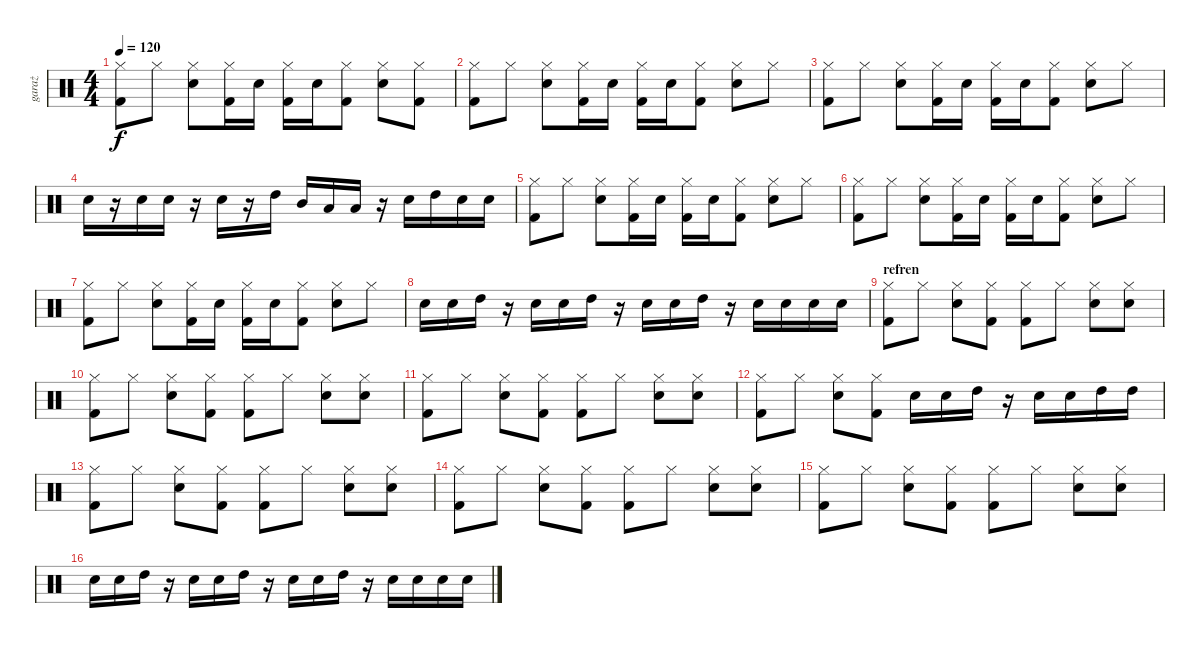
\track ("garaż" "garaż") {instrument percussion}
\staff {score}
\articulation defaults
\ts (4 4)
\tempo 120
\clef neutral
\ks c
("Hi-Hat (closed)" "Kick (hit) 2").8{dy f} "Hi-Hat (closed)".8 ("Hi-Hat (closed)" "Snare (hit) 2").8 ("Hi-Hat (closed)" "Kick (hit) 2").16 "Snare (hit) 2".16 ("Hi-Hat (closed)" "Kick (hit) 2").16 "Snare (hit) 2".16 ("Hi-Hat (closed)" "Kick (hit) 2").8 ("Hi-Hat (closed)" "Snare (hit) 2").8 ("Hi-Hat (closed)" "Kick (hit) 2").8 |
("Hi-Hat (closed)" "Kick (hit) 2").8 "Hi-Hat (closed)".8 ("Hi-Hat (closed)" "Snare (hit) 2").8 ("Hi-Hat (closed)" "Kick (hit) 2").16 "Snare (hit) 2".16 ("Hi-Hat (closed)" "Kick (hit) 2").16 "Snare (hit) 2".16 ("Hi-Hat (closed)" "Kick (hit) 2").8 ("Hi-Hat (closed)" "Snare (hit) 2").8 "Hi-Hat (closed)".8 |
("Hi-Hat (closed)" "Kick (hit) 2").8 "Hi-Hat (closed)".8 ("Hi-Hat (closed)" "Snare (hit) 2").8 ("Hi-Hat (closed)" "Kick (hit) 2").16 "Snare (hit) 2".16 ("Hi-Hat (closed)" "Kick (hit) 2").16 "Snare (hit) 2".16 ("Hi-Hat (closed)" "Kick (hit) 2").8 ("Hi-Hat (closed)" "Snare (hit) 2").8 "Hi-Hat (closed)".8 |
"Snare (hit) 2".16 r.16 "Snare (hit) 2".16 "Snare (hit) 2".16 r.16 "Snare (hit) 2".16 r.16 "High Tom (hit)".16 "Mid Tom (hit)".16 "Low Tom (hit)".16 "Low Floor Tom (hit)".16 r.16 "Snare (hit) 2".16 "High Tom (hit)".16 "Snare (hit) 2".16 "Snare (hit) 2".16 |
("Hi-Hat (closed)" "Kick (hit) 2").8 "Hi-Hat (closed)".8 ("Hi-Hat (closed)" "Snare (hit) 2").8 ("Hi-Hat (closed)" "Kick (hit) 2").16 "Snare (hit) 2".16 ("Hi-Hat (closed)" "Kick (hit) 2").16 "Snare (hit) 2".16 ("Hi-Hat (closed)" "Kick (hit) 2").8 ("Hi-Hat (closed)" "Snare (hit) 2").8 "Hi-Hat (closed)".8 |
("Hi-Hat (closed)" "Kick (hit) 2").8 "Hi-Hat (closed)".8 ("Hi-Hat (closed)" "Snare (hit) 2").8 ("Hi-Hat (closed)" "Kick (hit) 2").16 "Snare (hit) 2".16 ("Hi-Hat (closed)" "Kick (hit) 2").16 "Snare (hit) 2".16 ("Hi-Hat (closed)" "Kick (hit) 2").8 ("Hi-Hat (closed)" "Snare (hit) 2").8 "Hi-Hat (closed)".8 |
("Hi-Hat (closed)" "Kick (hit) 2").8 "Hi-Hat (closed)".8 ("Hi-Hat (closed)" "Snare (hit) 2").8 ("Hi-Hat (closed)" "Kick (hit) 2").16 "Snare (hit) 2".16 ("Hi-Hat (closed)" "Kick (hit) 2").16 "Snare (hit) 2".16 ("Hi-Hat (closed)" "Kick (hit) 2").8 ("Hi-Hat (closed)" "Snare (hit) 2").8 "Hi-Hat (closed)".8 |
"Snare (hit) 2".16 "Snare (hit) 2".16 "High Tom (hit)".16 r.16 "Snare (hit) 2".16 "Snare (hit) 2".16 "High Tom (hit)".16 r.16 "Snare (hit) 2".16 "Snare (hit) 2".16 "High Tom (hit)".16 r.16 "Snare (hit) 2".16 "Snare (hit) 2".16 "Snare (hit) 2".16 "Snare (hit) 2".16 |
\section ("" "refren")
("Hi-Hat (closed)" "Kick (hit) 2").8 "Hi-Hat (closed)".8 ("Hi-Hat (closed)" "Snare (hit) 2").8 ("Hi-Hat (closed)" "Kick (hit) 2").8 ("Hi-Hat (closed)" "Kick (hit) 2").8 "Hi-Hat (closed)".8 ("Hi-Hat (closed)" "Snare (hit) 2").8 ("Hi-Hat (closed)" "Snare (hit) 2").8 |
("Hi-Hat (closed)" "Kick (hit) 2").8 "Hi-Hat (closed)".8 ("Hi-Hat (closed)" "Snare (hit) 2").8 ("Hi-Hat (closed)" "Kick (hit) 2").8 ("Hi-Hat (closed)" "Kick (hit) 2").8 "Hi-Hat (closed)".8 ("Hi-Hat (closed)" "Snare (hit) 2").8 ("Hi-Hat (closed)" "Snare (hit) 2").8 |
("Hi-Hat (closed)" "Kick (hit) 2").8 "Hi-Hat (closed)".8 ("Hi-Hat (closed)" "Snare (hit) 2").8 ("Hi-Hat (closed)" "Kick (hit) 2").8 ("Hi-Hat (closed)" "Kick (hit) 2").8 "Hi-Hat (closed)".8 ("Hi-Hat (closed)" "Snare (hit) 2").8 ("Hi-Hat (closed)" "Snare (hit) 2").8 |
("Hi-Hat (closed)" "Kick (hit) 2").8 "Hi-Hat (closed)".8 ("Hi-Hat (closed)" "Snare (hit) 2").8 ("Hi-Hat (closed)" "Kick (hit) 2").8 "Snare (hit) 2".16 "Snare (hit) 2".16 "High Tom (hit)".16 r.16 "Snare (hit) 2".16 "Snare (hit) 2".16 "High Tom (hit)".16 "High Tom (hit)".16 |
("Hi-Hat (closed)" "Kick (hit) 2").8 "Hi-Hat (closed)".8 ("Hi-Hat (closed)" "Snare (hit) 2").8 ("Hi-Hat (closed)" "Kick (hit) 2").8 ("Hi-Hat (closed)" "Kick (hit) 2").8 "Hi-Hat (closed)".8 ("Hi-Hat (closed)" "Snare (hit) 2").8 ("Hi-Hat (closed)" "Snare (hit) 2").8 |
("Hi-Hat (closed)" "Kick (hit) 2").8 "Hi-Hat (closed)".8 ("Hi-Hat (closed)" "Snare (hit) 2").8 ("Hi-Hat (closed)" "Kick (hit) 2").8 ("Hi-Hat (closed)" "Kick (hit) 2").8 "Hi-Hat (closed)".8 ("Hi-Hat (closed)" "Snare (hit) 2").8 ("Hi-Hat (closed)" "Snare (hit) 2").8 |
("Hi-Hat (closed)" "Kick (hit) 2").8 "Hi-Hat (closed)".8 ("Hi-Hat (closed)" "Snare (hit) 2").8 ("Hi-Hat (closed)" "Kick (hit) 2").8 ("Hi-Hat (closed)" "Kick (hit) 2").8 "Hi-Hat (closed)".8 ("Hi-Hat (closed)" "Snare (hit) 2").8 ("Hi-Hat (closed)" "Snare (hit) 2").8 |
"Snare (hit) 2".16 "Snare (hit) 2".16 "High Tom (hit)".16 r.16 "Snare (hit) 2".16 "Snare (hit) 2".16 "High Tom (hit)".16 r.16 "Snare (hit) 2".16 "Snare (hit) 2".16 "High Tom (hit)".16 r.16 "Snare (hit) 2".16 "Snare (hit) 2".16 "Snare (hit) 2".16 "Snare (hit) 2".16
